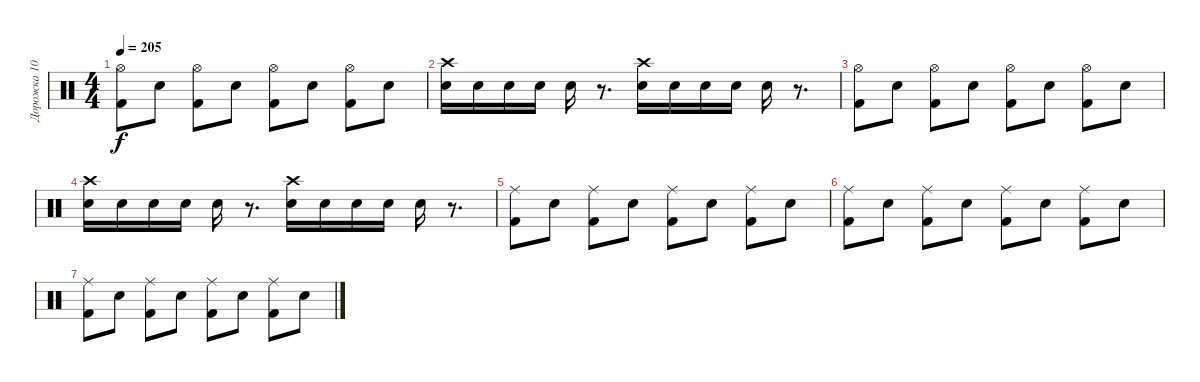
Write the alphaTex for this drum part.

\track ("Дорожка 10" "Дорожка 10") {instrument percussion}
\staff {score}
\articulation defaults
\ts (4 4)
\tempo 205
\clef neutral
\ks c
("Hi-Hat (open)" "Kick (hit) 2").8{dy f} "Snare (hit) 2".8 ("Hi-Hat (open)" "Kick (hit) 2").8 "Snare (hit) 2".8 ("Hi-Hat (open)" "Kick (hit) 2").8 "Snare (hit) 2".8 ("Hi-Hat (open)" "Kick (hit) 2").8 "Snare (hit) 2".8 |
("Crash high (hit)" "Snare (hit) 2").16 "Snare (hit) 2".16 "Snare (hit) 2".16 "Snare (hit) 2".16 "Snare (hit) 2".16 r.8{d} ("Crash high (hit)" "Snare (hit) 2").16 "Snare (hit) 2".16 "Snare (hit) 2".16 "Snare (hit) 2".16 "Snare (hit) 2".16 r.8{d} |
("Hi-Hat (open)" "Kick (hit) 2").8 "Snare (hit) 2".8 ("Hi-Hat (open)" "Kick (hit) 2").8 "Snare (hit) 2".8 ("Hi-Hat (open)" "Kick (hit) 2").8 "Snare (hit) 2".8 ("Hi-Hat (open)" "Kick (hit) 2").8 "Snare (hit) 2".8 |
("Crash high (hit)" "Snare (hit) 2").16 "Snare (hit) 2".16 "Snare (hit) 2".16 "Snare (hit) 2".16 "Snare (hit) 2".16 r.8{d} ("Crash high (hit)" "Snare (hit) 2").16 "Snare (hit) 2".16 "Snare (hit) 2".16 "Snare (hit) 2".16 "Snare (hit) 2".16 r.8{d} |
("Ride (middle)" "Kick (hit) 2").8 "Snare (hit) 2".8 ("Ride (middle)" "Kick (hit) 2").8 "Snare (hit) 2".8 ("Ride (middle)" "Kick (hit) 2").8 "Snare (hit) 2".8 ("Ride (middle)" "Kick (hit) 2").8 "Snare (hit) 2".8 |
("Ride (middle)" "Kick (hit) 2").8 "Snare (hit) 2".8 ("Ride (middle)" "Kick (hit) 2").8 "Snare (hit) 2".8 ("Ride (middle)" "Kick (hit) 2").8 "Snare (hit) 2".8 ("Ride (middle)" "Kick (hit) 2").8 "Snare (hit) 2".8 |
("Ride (middle)" "Kick (hit) 2").8 "Snare (hit) 2".8 ("Ride (middle)" "Kick (hit) 2").8 "Snare (hit) 2".8 ("Ride (middle)" "Kick (hit) 2").8 "Snare (hit) 2".8 ("Ride (middle)" "Kick (hit) 2").8 "Snare (hit) 2".8
